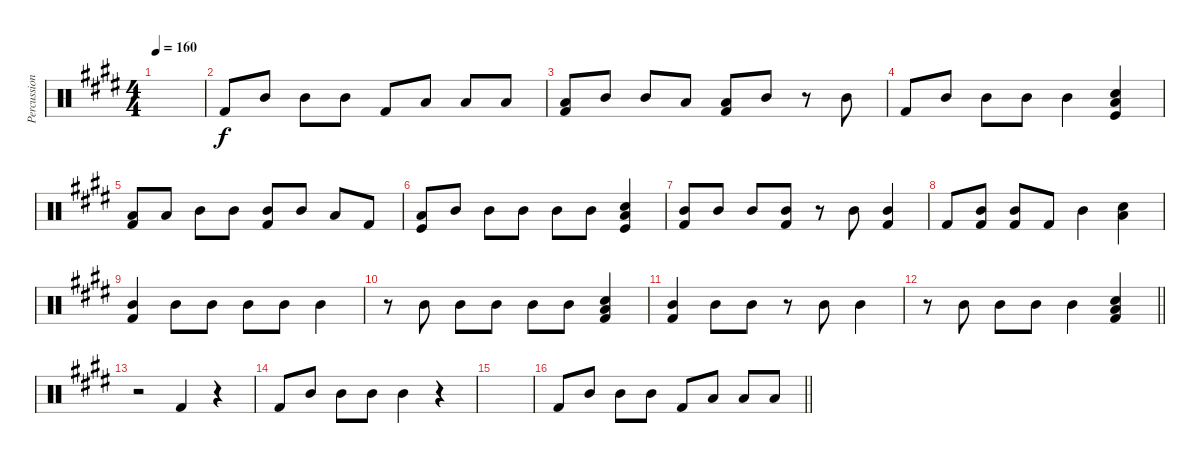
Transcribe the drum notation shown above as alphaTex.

\track ("Percussion" "Percussion") {instrument percussion}
\staff {score}
\articulation defaults
\ts (4 4)
\tempo 160
\clef neutral
\ks e
|
"Kick (hit) 2".8 "Mid Tom (hit)".8 "Mid Tom (hit)".8 "Mid Tom (hit)".8 "Kick (hit) 2".8 "Low Floor Tom (hit)".8 "Low Floor Tom (hit)".8 "Low Floor Tom (hit)".8 |
("Low Floor Tom (hit)" "Kick (hit) 2").8 "Mid Tom (hit)".8 "Mid Tom (hit)".8 "Low Floor Tom (hit)".8 ("Low Floor Tom (hit)" "Kick (hit) 2").8 "Mid Tom (hit)".8 r.8 "Mid Tom (hit)".8 |
"Kick (hit) 2".8 "Mid Tom (hit)".8 "Mid Tom (hit)".8 "Mid Tom (hit)".8 "Mid Tom (hit)".4 ("Snare (hit) 2" "Low Floor Tom (hit)" "Kick (hit)").4 |
("Low Floor Tom (hit)" "Kick (hit) 2").8 "Low Floor Tom (hit)".8 "Mid Tom (hit)".8 "Mid Tom (hit)".8 ("Mid Tom (hit)" "Kick (hit) 2").8 "Mid Tom (hit)".8 "Low Floor Tom (hit)".8 "Kick (hit) 2".8 |
("Low Floor Tom (hit)" "Kick (hit)").8 "Mid Tom (hit)".8 "Mid Tom (hit)".8 "Mid Tom (hit)".8 "Mid Tom (hit)".8 "Mid Tom (hit)".8 ("Snare (hit) 2" "Low Floor Tom (hit)" "Kick (hit)").4 |
("Mid Tom (hit)" "Kick (hit) 2").8 "Mid Tom (hit)".8 "Mid Tom (hit)".8 ("Mid Tom (hit)" "Kick (hit) 2").8 r.8 "Mid Tom (hit)".8 ("Mid Tom (hit)" "Kick (hit) 2").4 |
"Kick (hit) 2".8 ("Mid Tom (hit)" "Kick (hit) 2").8 ("Mid Tom (hit)" "Kick (hit) 2").8 "Kick (hit) 2".8 "Mid Tom (hit)".4 ("Snare (hit) 2" "Low Floor Tom (hit)").4 |
("Mid Tom (hit)" "Kick (hit) 2").4 "Mid Tom (hit)".8 "Mid Tom (hit)".8 "Mid Tom (hit)".8 "Mid Tom (hit)".8 "Mid Tom (hit)".4 |
r.8 "Mid Tom (hit)".8 "Mid Tom (hit)".8 "Mid Tom (hit)".8 "Mid Tom (hit)".8 "Mid Tom (hit)".8 ("Snare (hit) 2" "Low Floor Tom (hit)" "Kick (hit) 2").4 |
("Mid Tom (hit)" "Kick (hit) 2").4 "Mid Tom (hit)".8 "Mid Tom (hit)".8 r.8 "Mid Tom (hit)".8 "Mid Tom (hit)".4 |
\barLineRight lightlight
r.8 "Mid Tom (hit)".8 "Mid Tom (hit)".8 "Mid Tom (hit)".8 "Mid Tom (hit)".4 ("Snare (hit) 2" "Low Floor Tom (hit)" "Kick (hit) 2").4 |
r.2 "Kick (hit) 2".4 r.4 |
"Kick (hit) 2".8 "Mid Tom (hit)".8 "Mid Tom (hit)".8 "Mid Tom (hit)".8 "Mid Tom (hit)".4 r.4 |
|
\barLineRight lightlight "Kick (hit) 2".8 "Mid Tom (hit)".8 "Mid Tom (hit)".8 "Mid Tom (hit)".8 "Kick (hit) 2".8 "Low Floor Tom (hit)".8 "Low Floor Tom (hit)".8 "Low Floor Tom (hit)".8
